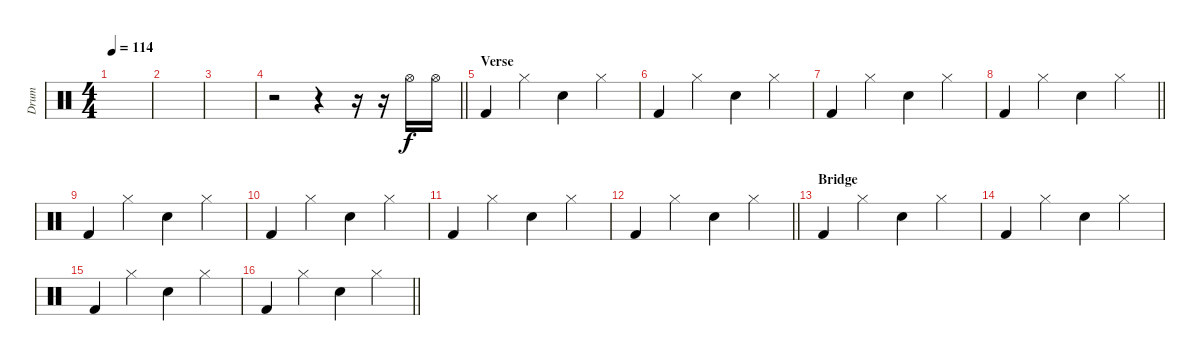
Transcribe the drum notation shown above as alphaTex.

\track ("Drum" "Drum") {instrument percussion}
\staff {score}
\articulation defaults
\ts (4 4)
\tempo 114
\clef neutral
\ks c
|
|
|
\barLineRight lightlight
r.2 r.4 r.16 r.16 "Hi-Hat (open)".16 "Hi-Hat (open)".16 |
\section ("" "Verse")
"Kick (hit) 2".4 "Hi-Hat (closed)".4 "Snare (hit) 2".4 "Hi-Hat (closed)".4 |
"Kick (hit) 2".4 "Hi-Hat (closed)".4 "Snare (hit) 2".4 "Hi-Hat (closed)".4 |
"Kick (hit) 2".4 "Hi-Hat (closed)".4 "Snare (hit) 2".4 "Hi-Hat (closed)".4 |
\barLineRight lightlight "Kick (hit) 2".4 "Hi-Hat (closed)".4 "Snare (hit) 2".4 "Hi-Hat (closed)".4
|
"Kick (hit) 2".4 "Hi-Hat (closed)".4 "Snare (hit) 2".4 "Hi-Hat (closed)".4 |
"Kick (hit) 2".4 "Hi-Hat (closed)".4 "Snare (hit) 2".4 "Hi-Hat (closed)".4 |
"Kick (hit) 2".4 "Hi-Hat (closed)".4 "Snare (hit) 2".4 "Hi-Hat (closed)".4 |
\barLineRight lightlight "Kick (hit) 2".4 "Hi-Hat (closed)".4 "Snare (hit) 2".4 "Hi-Hat (closed)".4
|
\section ("" "Bridge")
"Kick (hit) 2".4 "Hi-Hat (closed)".4 "Snare (hit) 2".4 "Hi-Hat (closed)".4 |
"Kick (hit) 2".4 "Hi-Hat (closed)".4 "Snare (hit) 2".4 "Hi-Hat (closed)".4 |
"Kick (hit) 2".4 "Hi-Hat (closed)".4 "Snare (hit) 2".4 "Hi-Hat (closed)".4 |
\barLineRight lightlight "Kick (hit) 2".4 "Hi-Hat (closed)".4 "Snare (hit) 2".4 "Hi-Hat (closed)".4
